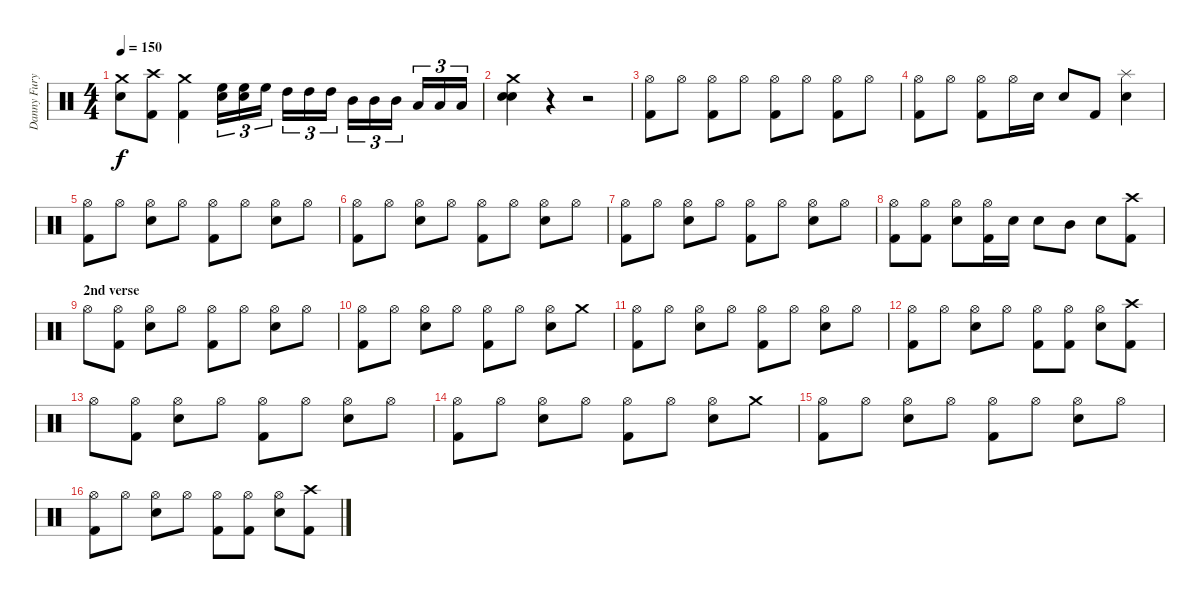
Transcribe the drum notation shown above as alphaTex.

\track ("Danny Fury" "Danny Fury") {instrument percussion}
\staff {score}
\articulation defaults
\ts (4 4)
\tempo 150
\clef neutral
\ks c
("Crash medium (hit)" "Electric Snare (hit)").8{dy f} ("Crash high (hit)" "Kick (hit) 2").8 ("Crash medium (hit)" "Kick (hit) 2").4 ("High Floor Tom (hit)" "Electric Snare (hit)").16{tu (3 2)} ("High Floor Tom (hit)" "Electric Snare (hit)").16{tu (3 2)} "High Floor Tom (hit)".16{tu (3 2)} "High Tom (hit)".16{tu (3 2)} "High Tom (hit)".16{tu (3 2)} "High Tom (hit)".16{tu (3 2)} "Mid Tom (hit)".16{tu (3 2)} "Mid Tom (hit)".16{tu (3 2)} "Mid Tom (hit)".16{tu (3 2)} "Low Tom (hit)".16{tu (3 2)} "Low Tom (hit)".16{tu (3 2)} "Low Tom (hit)".16{tu (3 2)} |
("Crash medium (hit)" "Electric Snare (hit)" "Snare (hit) 2").4 r.4 r.2 |
("Hi-Hat (open)" "Kick (hit) 2").8 "Hi-Hat (open)".8 ("Hi-Hat (open)" "Kick (hit) 2").8 "Hi-Hat (open)".8 ("Hi-Hat (open)" "Kick (hit) 2").8 "Hi-Hat (open)".8 ("Hi-Hat (open)" "Kick (hit) 2").8 "Hi-Hat (open)".8 |
("Hi-Hat (open)" "Kick (hit) 2").8 "Hi-Hat (open)".8 ("Hi-Hat (open)" "Kick (hit) 2").8 "Hi-Hat (open)".16 "Electric Snare (hit)".16 "Electric Snare (hit)".8 "Kick (hit) 2".8 ("Splash (hit)" "Electric Snare (hit)").4 |
("Hi-Hat (open)" "Kick (hit) 2").8 "Hi-Hat (open)".8 ("Hi-Hat (open)" "Electric Snare (hit)").8 "Hi-Hat (open)".8 ("Hi-Hat (open)" "Kick (hit) 2").8 "Hi-Hat (open)".8 ("Hi-Hat (open)" "Electric Snare (hit)").8 "Hi-Hat (open)".8 |
("Hi-Hat (open)" "Kick (hit) 2").8 "Hi-Hat (open)".8 ("Hi-Hat (open)" "Electric Snare (hit)").8 "Hi-Hat (open)".8 ("Hi-Hat (open)" "Kick (hit) 2").8 "Hi-Hat (open)".8 ("Hi-Hat (open)" "Electric Snare (hit)").8 "Hi-Hat (open)".8 |
("Hi-Hat (open)" "Kick (hit) 2").8 "Hi-Hat (open)".8 ("Hi-Hat (open)" "Electric Snare (hit)").8 "Hi-Hat (open)".8 ("Hi-Hat (open)" "Kick (hit) 2").8 "Hi-Hat (open)".8 ("Hi-Hat (open)" "Electric Snare (hit)").8 "Hi-Hat (open)".8 |
("Hi-Hat (open)" "Kick (hit) 2").8 ("Hi-Hat (open)" "Kick (hit) 2").8 ("Hi-Hat (open)" "Electric Snare (hit)").8 ("Hi-Hat (open)" "Kick (hit) 2").16 "Electric Snare (hit)".16 "Electric Snare (hit)".8 "Mid Tom (hit)".8 "Electric Snare (hit)".8 ("Crash high (hit)" "Kick (hit) 2").8 |
\section ("" "2nd verse")
"Hi-Hat (open)".8 ("Hi-Hat (open)" "Kick (hit) 2").8 ("Hi-Hat (open)" "Electric Snare (hit)").8 "Hi-Hat (open)".8 ("Hi-Hat (open)" "Kick (hit) 2").8 "Hi-Hat (open)".8 ("Hi-Hat (open)" "Electric Snare (hit)").8 "Hi-Hat (open)".8 |
("Hi-Hat (open)" "Kick (hit) 2").8 "Hi-Hat (open)".8 ("Hi-Hat (open)" "Electric Snare (hit)").8 "Hi-Hat (open)".8 ("Hi-Hat (open)" "Kick (hit) 2").8 "Hi-Hat (open)".8 ("Hi-Hat (open)" "Electric Snare (hit)").8 "Crash medium (hit)".8 |
("Hi-Hat (open)" "Kick (hit) 2").8 "Hi-Hat (open)".8 ("Hi-Hat (open)" "Electric Snare (hit)").8 "Hi-Hat (open)".8 ("Hi-Hat (open)" "Kick (hit) 2").8 "Hi-Hat (open)".8 ("Hi-Hat (open)" "Electric Snare (hit)").8 "Hi-Hat (open)".8 |
("Hi-Hat (open)" "Kick (hit) 2").8 "Hi-Hat (open)".8 ("Hi-Hat (open)" "Electric Snare (hit)").8 "Hi-Hat (open)".8 ("Hi-Hat (open)" "Kick (hit) 2").8 ("Hi-Hat (open)" "Kick (hit) 2").8 ("Hi-Hat (open)" "Electric Snare (hit)").8 ("Crash high (hit)" "Kick (hit) 2").8 |
"Hi-Hat (open)".8 ("Hi-Hat (open)" "Kick (hit) 2").8 ("Hi-Hat (open)" "Electric Snare (hit)").8 "Hi-Hat (open)".8 ("Hi-Hat (open)" "Kick (hit) 2").8 "Hi-Hat (open)".8 ("Hi-Hat (open)" "Electric Snare (hit)").8 "Hi-Hat (open)".8 |
("Hi-Hat (open)" "Kick (hit) 2").8 "Hi-Hat (open)".8 ("Hi-Hat (open)" "Electric Snare (hit)").8 "Hi-Hat (open)".8 ("Hi-Hat (open)" "Kick (hit) 2").8 "Hi-Hat (open)".8 ("Hi-Hat (open)" "Electric Snare (hit)").8 "Crash medium (hit)".8 |
("Hi-Hat (open)" "Kick (hit) 2").8 "Hi-Hat (open)".8 ("Hi-Hat (open)" "Electric Snare (hit)").8 "Hi-Hat (open)".8 ("Hi-Hat (open)" "Kick (hit) 2").8 "Hi-Hat (open)".8 ("Hi-Hat (open)" "Electric Snare (hit)").8 "Hi-Hat (open)".8 |
("Hi-Hat (open)" "Kick (hit) 2").8 "Hi-Hat (open)".8 ("Hi-Hat (open)" "Electric Snare (hit)").8 "Hi-Hat (open)".8 ("Hi-Hat (open)" "Kick (hit) 2").8 ("Hi-Hat (open)" "Kick (hit) 2").8 ("Hi-Hat (open)" "Electric Snare (hit)").8 ("Crash high (hit)" "Kick (hit) 2").8
